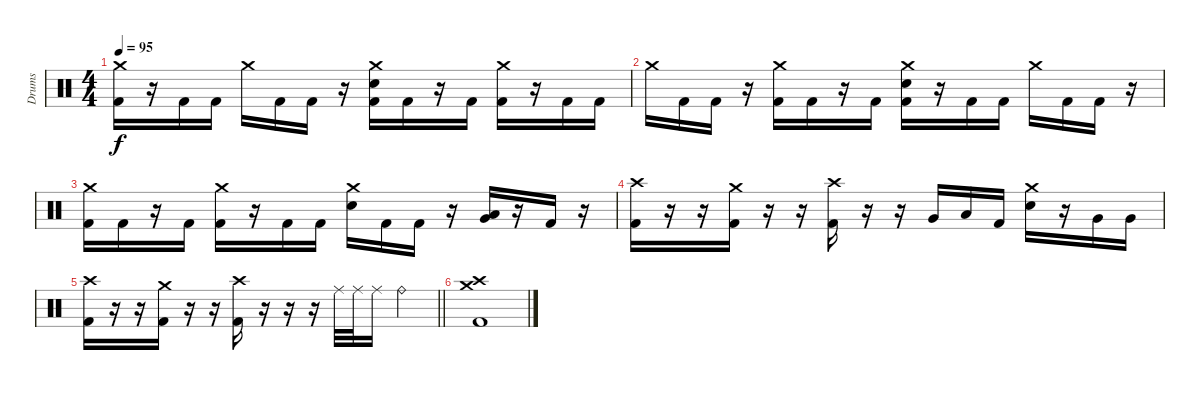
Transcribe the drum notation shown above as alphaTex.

\track ("Drums" "Drums") {instrument percussion}
\staff {score}
\articulation defaults
\ts (4 4)
\tempo 95
\clef neutral
\ks c
("Crash medium (hit)" "Kick (hit) 2").16{dy f} r.16 "Kick (hit) 2".16 "Kick (hit) 2".16 "Crash medium (hit)".16 "Kick (hit) 2".16 "Kick (hit) 2".16 r.16 ("Crash medium (hit)" "Electric Snare (hit)" "Kick (hit) 2").16 "Kick (hit) 2".16 r.16 "Kick (hit) 2".16 ("Crash medium (hit)" "Kick (hit) 2").16 r.16 "Kick (hit) 2".16 "Kick (hit) 2".16 |
"Crash medium (hit)".16 "Kick (hit) 2".16 "Kick (hit) 2".16 r.16 ("Crash medium (hit)" "Kick (hit) 2").16 "Kick (hit) 2".16 r.16 "Kick (hit) 2".16 ("Crash medium (hit)" "Electric Snare (hit)" "Kick (hit) 2").16 r.16 "Kick (hit) 2".16 "Kick (hit) 2".16 "Crash medium (hit)".16 "Kick (hit) 2".16 "Kick (hit) 2".16 r.16 |
("Crash medium (hit)" "Kick (hit) 2").16 "Kick (hit) 2".16 r.16 "Kick (hit) 2".16 ("Crash medium (hit)" "Kick (hit) 2").16 r.16 "Kick (hit) 2".16 "Kick (hit) 2".16 ("Crash medium (hit)" "Electric Snare (hit)").16 "Kick (hit) 2".16 "Kick (hit) 2".16 r.16 ("Very Low Tom (hit)" "Low Floor Tom (hit)").16 r.16 "Kick (hit) 2".16 r.16 |
("Crash high (hit)" "Kick (hit) 2").16 r.16 r.16 ("Crash medium (hit)" "Kick (hit) 2").16 r.16 r.16 ("Crash high (hit)" "Kick (hit) 2").16 r.16 r.16 "Very Low Tom (hit)".16 "Low Floor Tom (hit)".16 "Kick (hit) 2".16 ("Crash medium (hit)" "Electric Snare (hit)").16 r.16 "Very Low Tom (hit)".16 "Very Low Tom (hit)".16 |
\barLineRight lightlight
("Crash high (hit)" "Kick (hit) 2").16 r.16 r.16 ("Crash medium (hit)" "Kick (hit) 2").16 r.16 r.16 ("Crash high (hit)" "Kick (hit) 2").16 r.16 r.16 r.16 "Ride (middle)".32 "Ride (middle)".32 "Ride (middle)".16 "Ride (bell)".4 |
("Crash medium (hit)" "Crash high (hit)" "Kick (hit) 2").1
